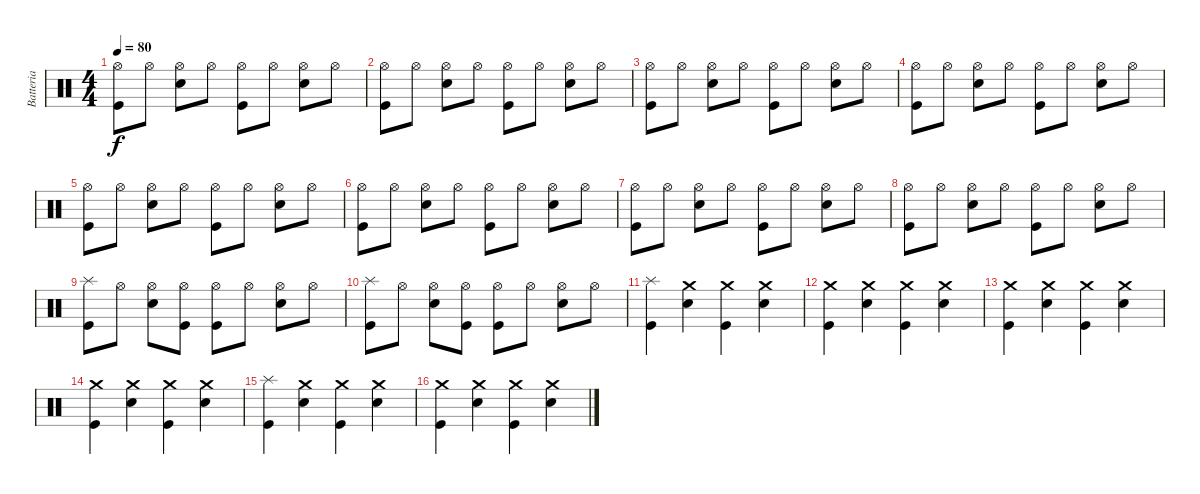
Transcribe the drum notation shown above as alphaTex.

\track ("Batteria" "Batteria") {instrument percussion}
\staff {score}
\articulation defaults
\ts (4 4)
\tempo 80
\clef neutral
\ks c
("Hi-Hat (open)" "Kick (hit)").8{dy f} "Hi-Hat (open)".8 ("Hi-Hat (open)" "Electric Snare (hit)").8 "Hi-Hat (open)".8 ("Hi-Hat (open)" "Kick (hit)").8 "Hi-Hat (open)".8 ("Hi-Hat (open)" "Electric Snare (hit)").8 "Hi-Hat (open)".8 |
("Kick (hit)" "Hi-Hat (open)").8 "Hi-Hat (open)".8 ("Electric Snare (hit)" "Hi-Hat (open)").8 "Hi-Hat (open)".8 ("Kick (hit)" "Hi-Hat (open)").8 "Hi-Hat (open)".8 ("Electric Snare (hit)" "Hi-Hat (open)").8 "Hi-Hat (open)".8 |
("Hi-Hat (open)" "Kick (hit)").8 "Hi-Hat (open)".8 ("Hi-Hat (open)" "Electric Snare (hit)").8 "Hi-Hat (open)".8 ("Hi-Hat (open)" "Kick (hit)").8 "Hi-Hat (open)".8 ("Hi-Hat (open)" "Electric Snare (hit)").8 "Hi-Hat (open)".8 |
("Kick (hit)" "Hi-Hat (open)").8 "Hi-Hat (open)".8 ("Electric Snare (hit)" "Hi-Hat (open)").8 "Hi-Hat (open)".8 ("Kick (hit)" "Hi-Hat (open)").8 "Hi-Hat (open)".8 ("Electric Snare (hit)" "Hi-Hat (open)").8 "Hi-Hat (open)".8 |
("Kick (hit)" "Hi-Hat (open)").8 "Hi-Hat (open)".8 ("Electric Snare (hit)" "Hi-Hat (open)").8 "Hi-Hat (open)".8 ("Kick (hit)" "Hi-Hat (open)").8 "Hi-Hat (open)".8 ("Electric Snare (hit)" "Hi-Hat (open)").8 "Hi-Hat (open)".8 |
("Kick (hit)" "Hi-Hat (open)").8 "Hi-Hat (open)".8 ("Hi-Hat (open)" "Electric Snare (hit)").8 "Hi-Hat (open)".8 ("Hi-Hat (open)" "Kick (hit)").8 "Hi-Hat (open)".8 ("Hi-Hat (open)" "Electric Snare (hit)").8 "Hi-Hat (open)".8 |
("Hi-Hat (open)" "Kick (hit)").8 "Hi-Hat (open)".8 ("Hi-Hat (open)" "Electric Snare (hit)").8 "Hi-Hat (open)".8 ("Hi-Hat (open)" "Kick (hit)").8 "Hi-Hat (open)".8 ("Hi-Hat (open)" "Electric Snare (hit)").8 "Hi-Hat (open)".8 |
("Kick (hit)" "Hi-Hat (open)").8 "Hi-Hat (open)".8 ("Electric Snare (hit)" "Hi-Hat (open)").8 "Hi-Hat (open)".8 ("Kick (hit)" "Hi-Hat (open)").8 "Hi-Hat (open)".8 ("Electric Snare (hit)" "Hi-Hat (open)").8 "Hi-Hat (open)".8 |
("Kick (hit)" "Splash (hit)").8 "Hi-Hat (open)".8 ("Hi-Hat (open)" "Electric Snare (hit)").8 ("Hi-Hat (open)" "Kick (hit)").8 ("Hi-Hat (open)" "Kick (hit)").8 "Hi-Hat (open)".8 ("Hi-Hat (open)" "Electric Snare (hit)").8 "Hi-Hat (open)".8 |
("Kick (hit)" "Splash (hit)").8 "Hi-Hat (open)".8 ("Hi-Hat (open)" "Electric Snare (hit)").8 ("Hi-Hat (open)" "Kick (hit)").8 ("Hi-Hat (open)" "Kick (hit)").8 "Hi-Hat (open)".8 ("Hi-Hat (open)" "Electric Snare (hit)").8 "Hi-Hat (open)".8 |
("Splash (hit)" "Kick (hit)").4 ("Crash medium (hit)" "Electric Snare (hit)").4 ("Crash medium (hit)" "Kick (hit)").4 ("Crash medium (hit)" "Electric Snare (hit)").4 |
("Crash medium (hit)" "Kick (hit)").4 ("Crash medium (hit)" "Electric Snare (hit)").4 ("Crash medium (hit)" "Kick (hit)").4 ("Crash medium (hit)" "Electric Snare (hit)").4 |
("Crash medium (hit)" "Kick (hit)").4 ("Crash medium (hit)" "Electric Snare (hit)").4 ("Crash medium (hit)" "Kick (hit)").4 ("Crash medium (hit)" "Electric Snare (hit)").4 |
("Crash medium (hit)" "Kick (hit)").4 ("Crash medium (hit)" "Electric Snare (hit)").4 ("Crash medium (hit)" "Kick (hit)").4 ("Crash medium (hit)" "Electric Snare (hit)").4 |
("Splash (hit)" "Kick (hit)").4 ("Crash medium (hit)" "Electric Snare (hit)").4 ("Crash medium (hit)" "Kick (hit)").4 ("Crash medium (hit)" "Electric Snare (hit)").4 |
("Crash medium (hit)" "Kick (hit)").4 ("Crash medium (hit)" "Electric Snare (hit)").4 ("Crash medium (hit)" "Kick (hit)").4 ("Crash medium (hit)" "Electric Snare (hit)").4
